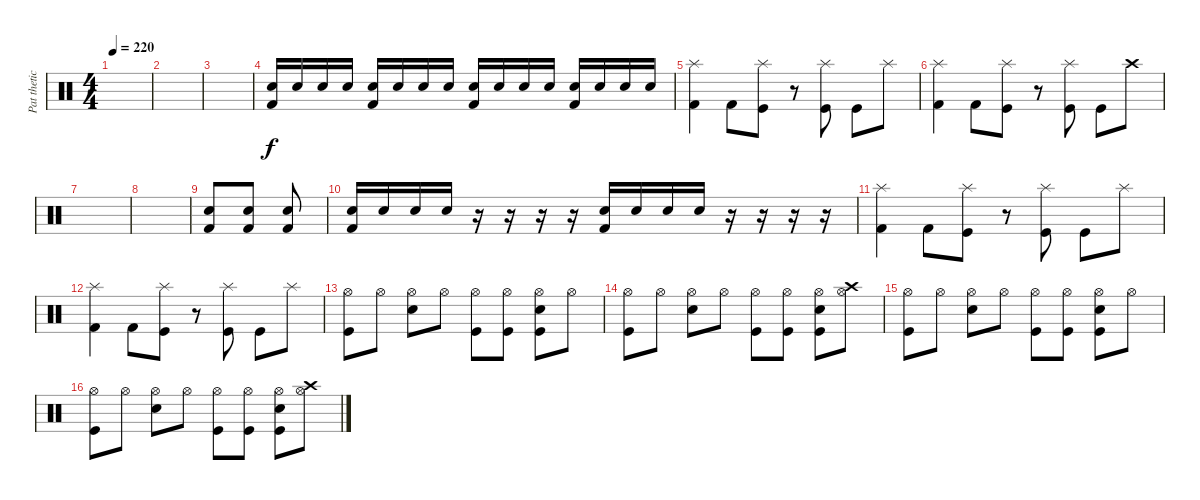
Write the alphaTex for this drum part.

\track ("Pat thetic (Drums)" "Pat thetic") {instrument percussion}
\staff {score}
\articulation defaults
\ts (4 4)
\tempo 220
\clef neutral
\ks c
|
|
|
("Kick (hit) 2" "Electric Snare (hit)").16 "Electric Snare (hit)".16 "Electric Snare (hit)".16 "Electric Snare (hit)".16 ("Kick (hit) 2" "Electric Snare (hit)").16 "Electric Snare (hit)".16 "Electric Snare (hit)".16 "Electric Snare (hit)".16 ("Kick (hit) 2" "Electric Snare (hit)").16 "Electric Snare (hit)".16 "Electric Snare (hit)".16 "Electric Snare (hit)".16 ("Kick (hit) 2" "Electric Snare (hit)").16 "Electric Snare (hit)".16 "Electric Snare (hit)".16 "Electric Snare (hit)".16 |
("Kick (hit) 2" "Splash (hit)").4 "Kick (hit) 2".8 ("Kick (hit)" "Splash (hit)").8 r.8 ("Kick (hit)" "Splash (hit)").8 "Kick (hit)".8 "Splash (hit)".8 |
("Kick (hit) 2" "Splash (hit)").4 "Kick (hit) 2".8 ("Kick (hit)" "Splash (hit)").8 r.8 ("Kick (hit)" "Splash (hit)").8 "Kick (hit)".8 "Crash high (hit)".8 |
|
|
("Kick (hit) 2" "Electric Snare (hit)").8 ("Kick (hit) 2" "Electric Snare (hit)").8 ("Kick (hit) 2" "Electric Snare (hit)").8 |
("Kick (hit) 2" "Electric Snare (hit)").16 "Electric Snare (hit)".16 "Electric Snare (hit)".16 "Electric Snare (hit)".16 r.16 r.16 r.16 r.16 ("Kick (hit) 2" "Electric Snare (hit)").16 "Electric Snare (hit)".16 "Electric Snare (hit)".16 "Electric Snare (hit)".16 r.16 r.16 r.16 r.16 |
("Kick (hit) 2" "Splash (hit)").4 "Kick (hit) 2".8 ("Kick (hit)" "Splash (hit)").8 r.8 ("Kick (hit)" "Splash (hit)").8 "Kick (hit)".8 "Splash (hit)".8 |
("Kick (hit) 2" "Splash (hit)").4 "Kick (hit) 2".8 ("Kick (hit)" "Splash (hit)").8 r.8 ("Kick (hit)" "Splash (hit)").8 "Kick (hit)".8 "Splash (hit)".8 |
("Kick (hit)" "Hi-Hat (open)").8 "Hi-Hat (open)".8 ("Electric Snare (hit)" "Hi-Hat (open)").8 "Hi-Hat (open)".8 ("Kick (hit)" "Hi-Hat (open)").8 ("Kick (hit)" "Hi-Hat (open)").8 ("Kick (hit)" "Electric Snare (hit)" "Hi-Hat (open)").8 "Hi-Hat (open)".8 |
("Kick (hit)" "Hi-Hat (open)").8 "Hi-Hat (open)".8 ("Electric Snare (hit)" "Hi-Hat (open)").8 "Hi-Hat (open)".8 ("Kick (hit)" "Hi-Hat (open)").8 ("Kick (hit)" "Hi-Hat (open)").8 ("Kick (hit)" "Electric Snare (hit)" "Hi-Hat (open)").8 ("Crash high (hit)" "Hi-Hat (open)").8 |
("Kick (hit)" "Hi-Hat (open)").8 "Hi-Hat (open)".8 ("Electric Snare (hit)" "Hi-Hat (open)").8 "Hi-Hat (open)".8 ("Kick (hit)" "Hi-Hat (open)").8 ("Kick (hit)" "Hi-Hat (open)").8 ("Kick (hit)" "Electric Snare (hit)" "Hi-Hat (open)").8 "Hi-Hat (open)".8 |
("Kick (hit)" "Hi-Hat (open)").8 "Hi-Hat (open)".8 ("Electric Snare (hit)" "Hi-Hat (open)").8 "Hi-Hat (open)".8 ("Kick (hit)" "Hi-Hat (open)").8 ("Kick (hit)" "Hi-Hat (open)").8 ("Kick (hit)" "Electric Snare (hit)" "Hi-Hat (open)").8 ("Crash high (hit)" "Hi-Hat (open)").8
